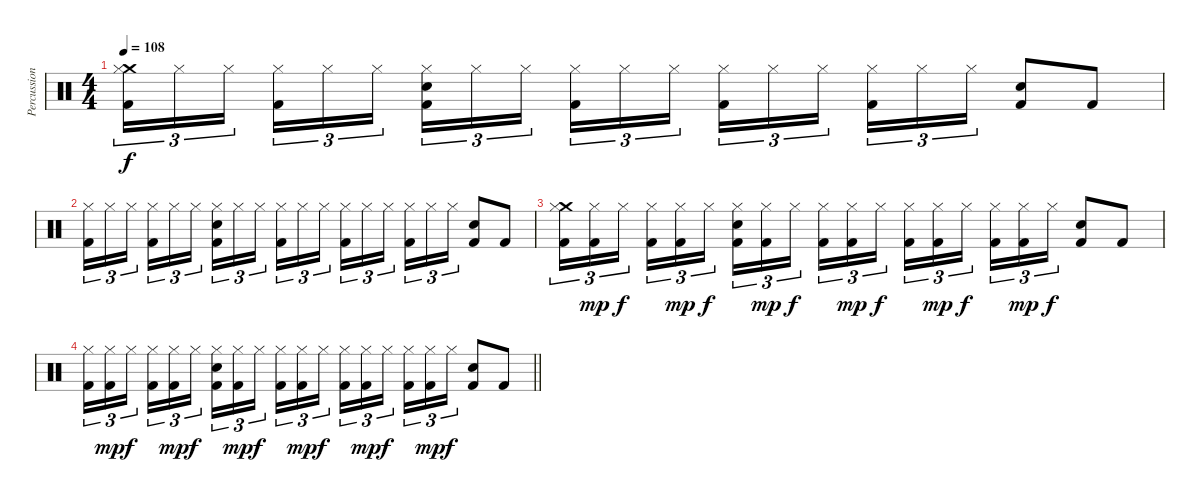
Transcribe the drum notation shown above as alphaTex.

\track ("Percussion" "Percussion") {instrument percussion}
\staff {score}
\articulation defaults
\ts (4 4)
\tempo 108
\clef neutral
\ks c
("Crash medium (hit)" "Hi-Hat (closed)" "Kick (hit) 2").16{tu (3 2) dy f} "Hi-Hat (closed)".16{tu (3 2)} "Hi-Hat (closed)".16{tu (3 2) beam splitsecondary} ("Hi-Hat (closed)" "Kick (hit) 2").16{tu (3 2)} "Hi-Hat (closed)".16{tu (3 2)} "Hi-Hat (closed)".16{tu (3 2)} ("Hi-Hat (closed)" "Electric Snare (hit)" "Kick (hit) 2").16{tu (3 2)} "Hi-Hat (closed)".16{tu (3 2)} "Hi-Hat (closed)".16{tu (3 2) beam splitsecondary} ("Hi-Hat (closed)" "Kick (hit) 2").16{tu (3 2)} "Hi-Hat (closed)".16{tu (3 2)} "Hi-Hat (closed)".16{tu (3 2)} ("Hi-Hat (closed)" "Kick (hit) 2").16{tu (3 2)} "Hi-Hat (closed)".16{tu (3 2)} "Hi-Hat (closed)".16{tu (3 2) beam splitsecondary} ("Hi-Hat (closed)" "Kick (hit) 2").16{tu (3 2)} "Hi-Hat (closed)".16{tu (3 2)} "Hi-Hat (closed)".16{tu (3 2)} ("Electric Snare (hit)" "Kick (hit) 2").8 "Kick (hit) 2".8 |
("Hi-Hat (closed)" "Kick (hit) 2").16{tu (3 2)} "Hi-Hat (closed)".16{tu (3 2)} "Hi-Hat (closed)".16{tu (3 2) beam splitsecondary} ("Hi-Hat (closed)" "Kick (hit) 2").16{tu (3 2)} "Hi-Hat (closed)".16{tu (3 2)} "Hi-Hat (closed)".16{tu (3 2)} ("Hi-Hat (closed)" "Electric Snare (hit)" "Kick (hit) 2").16{tu (3 2)} "Hi-Hat (closed)".16{tu (3 2)} "Hi-Hat (closed)".16{tu (3 2) beam splitsecondary} ("Hi-Hat (closed)" "Kick (hit) 2").16{tu (3 2)} "Hi-Hat (closed)".16{tu (3 2)} "Hi-Hat (closed)".16{tu (3 2)} ("Hi-Hat (closed)" "Kick (hit) 2").16{tu (3 2)} "Hi-Hat (closed)".16{tu (3 2)} "Hi-Hat (closed)".16{tu (3 2) beam splitsecondary} ("Hi-Hat (closed)" "Kick (hit) 2").16{tu (3 2)} "Hi-Hat (closed)".16{tu (3 2)} "Hi-Hat (closed)".16{tu (3 2)} ("Electric Snare (hit)" "Kick (hit) 2").8 "Kick (hit) 2".8 |
("Crash medium (hit)" "Hi-Hat (closed)" "Kick (hit) 2").16{tu (3 2)} ("Hi-Hat (closed)" "Kick (hit) 2").16{tu (3 2) dy mp} "Hi-Hat (closed)".16{tu (3 2) dy f beam splitsecondary} ("Hi-Hat (closed)" "Kick (hit) 2").16{tu (3 2)} ("Hi-Hat (closed)" "Kick (hit) 2").16{tu (3 2) dy mp} "Hi-Hat (closed)".16{tu (3 2) dy f} ("Hi-Hat (closed)" "Electric Snare (hit)" "Kick (hit) 2").16{tu (3 2)} ("Hi-Hat (closed)" "Kick (hit) 2").16{tu (3 2) dy mp} "Hi-Hat (closed)".16{tu (3 2) dy f beam splitsecondary} ("Hi-Hat (closed)" "Kick (hit) 2").16{tu (3 2)} ("Hi-Hat (closed)" "Kick (hit) 2").16{tu (3 2) dy mp} "Hi-Hat (closed)".16{tu (3 2) dy f} ("Hi-Hat (closed)" "Kick (hit) 2").16{tu (3 2)} ("Hi-Hat (closed)" "Kick (hit) 2").16{tu (3 2) dy mp} "Hi-Hat (closed)".16{tu (3 2) dy f beam splitsecondary} ("Hi-Hat (closed)" "Kick (hit) 2").16{tu (3 2)} ("Hi-Hat (closed)" "Kick (hit) 2").16{tu (3 2) dy mp} "Hi-Hat (closed)".16{tu (3 2) dy f} ("Electric Snare (hit)" "Kick (hit) 2").8 "Kick (hit) 2".8 |
\barLineRight lightlight
("Hi-Hat (closed)" "Kick (hit) 2").16{tu (3 2)} ("Hi-Hat (closed)" "Kick (hit) 2").16{tu (3 2) dy mp} "Hi-Hat (closed)".16{tu (3 2) dy f beam splitsecondary} ("Hi-Hat (closed)" "Kick (hit) 2").16{tu (3 2)} ("Hi-Hat (closed)" "Kick (hit) 2").16{tu (3 2) dy mp} "Hi-Hat (closed)".16{tu (3 2) dy f} ("Hi-Hat (closed)" "Electric Snare (hit)" "Kick (hit) 2").16{tu (3 2)} ("Hi-Hat (closed)" "Kick (hit) 2").16{tu (3 2) dy mp} "Hi-Hat (closed)".16{tu (3 2) dy f beam splitsecondary} ("Hi-Hat (closed)" "Kick (hit) 2").16{tu (3 2)} ("Hi-Hat (closed)" "Kick (hit) 2").16{tu (3 2) dy mp} "Hi-Hat (closed)".16{tu (3 2) dy f} ("Hi-Hat (closed)" "Kick (hit) 2").16{tu (3 2)} ("Hi-Hat (closed)" "Kick (hit) 2").16{tu (3 2) dy mp} "Hi-Hat (closed)".16{tu (3 2) dy f beam splitsecondary} ("Hi-Hat (closed)" "Kick (hit) 2").16{tu (3 2)} ("Hi-Hat (closed)" "Kick (hit) 2").16{tu (3 2) dy mp} "Hi-Hat (closed)".16{tu (3 2) dy f} ("Electric Snare (hit)" "Kick (hit) 2").8 "Kick (hit) 2".8
